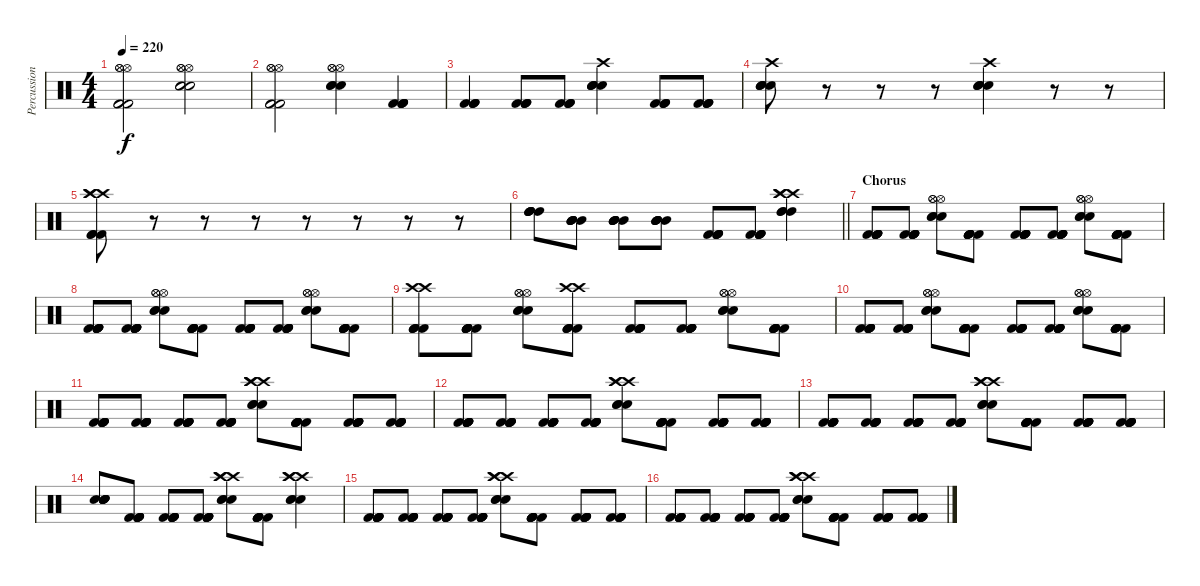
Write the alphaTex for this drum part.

\track ("Percussion" "Percussion") {instrument percussion}
\staff {score}
\articulation defaults
\ts (4 4)
\tempo 220
\clef neutral
\ks c
("Hi-Hat (open)" "Hi-Hat (open)" "Hi-Hat (open)" "Kick (hit) 2" "Kick (hit) 2" "Kick (hit) 2").2{dy f} ("Hi-Hat (open)" "Hi-Hat (open)" "Hi-Hat (open)" "Snare (hit) 2" "Snare (hit) 2" "Snare (hit) 2").2 |
("Hi-Hat (open)" "Hi-Hat (open)" "Hi-Hat (open)" "Kick (hit) 2" "Kick (hit) 2" "Kick (hit) 2").2 ("Hi-Hat (open)" "Hi-Hat (open)" "Hi-Hat (open)" "Snare (hit) 2" "Snare (hit) 2" "Snare (hit) 2").4 ("Kick (hit) 2" "Kick (hit) 2" "Kick (hit) 2" "Kick (hit) 2" "Kick (hit) 2").4 |
("Kick (hit) 2" "Kick (hit) 2" "Kick (hit) 2" "Kick (hit) 2").4 ("Kick (hit) 2" "Kick (hit) 2" "Kick (hit) 2" "Kick (hit) 2").8 ("Kick (hit) 2" "Kick (hit) 2" "Kick (hit) 2" "Kick (hit) 2").8 ("Crash high (hit)" "Snare (hit) 2" "Snare (hit) 2" "Snare (hit) 2" "Snare (hit) 2").4 ("Kick (hit) 2" "Kick (hit) 2" "Kick (hit) 2" "Kick (hit) 2").8 ("Kick (hit) 2" "Kick (hit) 2" "Kick (hit) 2" "Kick (hit) 2").8 |
("Crash high (hit)" "Snare (hit) 2" "Snare (hit) 2" "Snare (hit) 2" "Snare (hit) 2").8 r.8 r.8 r.8 ("Crash high (hit)" "Snare (hit) 2" "Snare (hit) 2" "Snare (hit) 2" "Snare (hit) 2").4 r.8 r.8 |
("Crash high (hit)" "Crash high (hit)" "Crash high (hit)" "Kick (hit) 2" "Kick (hit) 2" "Kick (hit) 2").8 r.8 r.8 r.8 r.8 r.8 r.8 r.8 |
\barLineRight lightlight
("High Tom (hit)" "High Tom (hit)" "High Tom (hit)" "High Tom (hit)" "High Tom (hit)").8 ("Mid Tom (hit)" "Mid Tom (hit)" "Mid Tom (hit)" "Mid Tom (hit)" "Mid Tom (hit)").8 ("Mid Tom (hit)" "Mid Tom (hit)" "Mid Tom (hit)" "Mid Tom (hit)" "Mid Tom (hit)").8 ("Mid Tom (hit)" "Mid Tom (hit)" "Mid Tom (hit)" "Mid Tom (hit)" "Mid Tom (hit)").8 ("Kick (hit) 2" "Kick (hit) 2" "Kick (hit) 2" "Kick (hit) 2" "Kick (hit) 2").8 ("Kick (hit) 2" "Kick (hit) 2" "Kick (hit) 2" "Kick (hit) 2" "Kick (hit) 2").8 ("Crash high (hit)" "Crash high (hit)" "Crash high (hit)" "High Tom (hit)" "High Tom (hit)" "High Tom (hit)").4 |
\section ("" "Chorus")
("Kick (hit) 2" "Kick (hit) 2" "Kick (hit) 2" "Kick (hit) 2" "Kick (hit) 2" "Kick (hit) 2").8 ("Kick (hit) 2" "Kick (hit) 2" "Kick (hit) 2" "Kick (hit) 2" "Kick (hit) 2" "Kick (hit) 2").8 ("Hi-Hat (open)" "Hi-Hat (open)" "Hi-Hat (open)" "Snare (hit) 2" "Snare (hit) 2" "Snare (hit) 2").8 ("Kick (hit) 2" "Kick (hit) 2" "Kick (hit) 2" "Kick (hit) 2" "Kick (hit) 2" "Kick (hit) 2").8 ("Kick (hit) 2" "Kick (hit) 2" "Kick (hit) 2" "Kick (hit) 2" "Kick (hit) 2" "Kick (hit) 2").8 ("Kick (hit) 2" "Kick (hit) 2" "Kick (hit) 2" "Kick (hit) 2" "Kick (hit) 2" "Kick (hit) 2").8 ("Hi-Hat (open)" "Hi-Hat (open)" "Hi-Hat (open)" "Snare (hit) 2" "Snare (hit) 2" "Snare (hit) 2").8 ("Kick (hit) 2" "Kick (hit) 2" "Kick (hit) 2" "Kick (hit) 2" "Kick (hit) 2" "Kick (hit) 2").8 |
("Kick (hit) 2" "Kick (hit) 2" "Kick (hit) 2" "Kick (hit) 2" "Kick (hit) 2" "Kick (hit) 2").8 ("Kick (hit) 2" "Kick (hit) 2" "Kick (hit) 2" "Kick (hit) 2" "Kick (hit) 2" "Kick (hit) 2").8 ("Hi-Hat (open)" "Hi-Hat (open)" "Hi-Hat (open)" "Snare (hit) 2" "Snare (hit) 2" "Snare (hit) 2").8 ("Kick (hit) 2" "Kick (hit) 2" "Kick (hit) 2" "Kick (hit) 2" "Kick (hit) 2" "Kick (hit) 2").8 ("Kick (hit) 2" "Kick (hit) 2" "Kick (hit) 2" "Kick (hit) 2" "Kick (hit) 2" "Kick (hit) 2").8 ("Kick (hit) 2" "Kick (hit) 2" "Kick (hit) 2" "Kick (hit) 2" "Kick (hit) 2" "Kick (hit) 2").8 ("Hi-Hat (open)" "Hi-Hat (open)" "Hi-Hat (open)" "Snare (hit) 2" "Snare (hit) 2" "Snare (hit) 2").8 ("Kick (hit) 2" "Kick (hit) 2" "Kick (hit) 2" "Kick (hit) 2" "Kick (hit) 2" "Kick (hit) 2").8 |
("Crash high (hit)" "Crash high (hit)" "Kick (hit) 2" "Kick (hit) 2" "Kick (hit) 2" "Kick (hit) 2").8 ("Kick (hit) 2" "Kick (hit) 2" "Kick (hit) 2" "Kick (hit) 2" "Kick (hit) 2" "Kick (hit) 2").8 ("Hi-Hat (open)" "Hi-Hat (open)" "Hi-Hat (open)" "Snare (hit) 2" "Snare (hit) 2" "Snare (hit) 2").8 ("Crash high (hit)" "Crash high (hit)" "Kick (hit) 2" "Kick (hit) 2" "Kick (hit) 2" "Kick (hit) 2").8 ("Kick (hit) 2" "Kick (hit) 2" "Kick (hit) 2" "Kick (hit) 2" "Kick (hit) 2" "Kick (hit) 2").8 ("Kick (hit) 2" "Kick (hit) 2" "Kick (hit) 2" "Kick (hit) 2" "Kick (hit) 2" "Kick (hit) 2").8 ("Hi-Hat (open)" "Hi-Hat (open)" "Hi-Hat (open)" "Snare (hit) 2" "Snare (hit) 2" "Snare (hit) 2").8 ("Kick (hit) 2" "Kick (hit) 2" "Kick (hit) 2" "Kick (hit) 2" "Kick (hit) 2" "Kick (hit) 2").8 |
("Kick (hit) 2" "Kick (hit) 2" "Kick (hit) 2" "Kick (hit) 2" "Kick (hit) 2" "Kick (hit) 2").8 ("Kick (hit) 2" "Kick (hit) 2" "Kick (hit) 2" "Kick (hit) 2" "Kick (hit) 2" "Kick (hit) 2").8 ("Hi-Hat (open)" "Hi-Hat (open)" "Hi-Hat (open)" "Snare (hit) 2" "Snare (hit) 2" "Snare (hit) 2").8 ("Kick (hit) 2" "Kick (hit) 2" "Kick (hit) 2" "Kick (hit) 2" "Kick (hit) 2" "Kick (hit) 2").8 ("Kick (hit) 2" "Kick (hit) 2" "Kick (hit) 2" "Kick (hit) 2" "Kick (hit) 2" "Kick (hit) 2").8 ("Kick (hit) 2" "Kick (hit) 2" "Kick (hit) 2" "Kick (hit) 2" "Kick (hit) 2" "Kick (hit) 2").8 ("Hi-Hat (open)" "Hi-Hat (open)" "Hi-Hat (open)" "Snare (hit) 2" "Snare (hit) 2" "Snare (hit) 2").8 ("Kick (hit) 2" "Kick (hit) 2" "Kick (hit) 2" "Kick (hit) 2" "Kick (hit) 2" "Kick (hit) 2").8 |
("Kick (hit) 2" "Kick (hit) 2" "Kick (hit) 2" "Kick (hit) 2" "Kick (hit) 2" "Kick (hit) 2").8 ("Kick (hit) 2" "Kick (hit) 2" "Kick (hit) 2" "Kick (hit) 2" "Kick (hit) 2" "Kick (hit) 2").8 ("Kick (hit) 2" "Kick (hit) 2" "Kick (hit) 2" "Kick (hit) 2" "Kick (hit) 2" "Kick (hit) 2").8 ("Kick (hit) 2" "Kick (hit) 2" "Kick (hit) 2" "Kick (hit) 2" "Kick (hit) 2" "Kick (hit) 2").8 ("Crash high (hit)" "Crash high (hit)" "Crash high (hit)" "Snare (hit) 2" "Snare (hit) 2" "Snare (hit) 2").8 ("Kick (hit) 2" "Kick (hit) 2" "Kick (hit) 2" "Kick (hit) 2" "Kick (hit) 2" "Kick (hit) 2").8 ("Kick (hit) 2" "Kick (hit) 2" "Kick (hit) 2" "Kick (hit) 2" "Kick (hit) 2" "Kick (hit) 2").8 ("Kick (hit) 2" "Kick (hit) 2" "Kick (hit) 2" "Kick (hit) 2" "Kick (hit) 2" "Kick (hit) 2").8 |
("Kick (hit) 2" "Kick (hit) 2" "Kick (hit) 2" "Kick (hit) 2" "Kick (hit) 2" "Kick (hit) 2").8 ("Kick (hit) 2" "Kick (hit) 2" "Kick (hit) 2" "Kick (hit) 2" "Kick (hit) 2" "Kick (hit) 2").8 ("Kick (hit) 2" "Kick (hit) 2" "Kick (hit) 2" "Kick (hit) 2" "Kick (hit) 2" "Kick (hit) 2").8 ("Kick (hit) 2" "Kick (hit) 2" "Kick (hit) 2" "Kick (hit) 2" "Kick (hit) 2" "Kick (hit) 2").8 ("Crash high (hit)" "Crash high (hit)" "Crash high (hit)" "Snare (hit) 2" "Snare (hit) 2" "Snare (hit) 2").8 ("Kick (hit) 2" "Kick (hit) 2" "Kick (hit) 2" "Kick (hit) 2" "Kick (hit) 2" "Kick (hit) 2").8 ("Kick (hit) 2" "Kick (hit) 2" "Kick (hit) 2" "Kick (hit) 2" "Kick (hit) 2" "Kick (hit) 2").8 ("Kick (hit) 2" "Kick (hit) 2" "Kick (hit) 2" "Kick (hit) 2" "Kick (hit) 2" "Kick (hit) 2").8 |
("Kick (hit) 2" "Kick (hit) 2" "Kick (hit) 2" "Kick (hit) 2" "Kick (hit) 2" "Kick (hit) 2").8 ("Kick (hit) 2" "Kick (hit) 2" "Kick (hit) 2" "Kick (hit) 2" "Kick (hit) 2" "Kick (hit) 2").8 ("Kick (hit) 2" "Kick (hit) 2" "Kick (hit) 2" "Kick (hit) 2" "Kick (hit) 2" "Kick (hit) 2").8 ("Kick (hit) 2" "Kick (hit) 2" "Kick (hit) 2" "Kick (hit) 2" "Kick (hit) 2" "Kick (hit) 2").8 ("Crash high (hit)" "Crash high (hit)" "Crash high (hit)" "Snare (hit) 2" "Snare (hit) 2" "Snare (hit) 2").8 ("Kick (hit) 2" "Kick (hit) 2" "Kick (hit) 2" "Kick (hit) 2" "Kick (hit) 2" "Kick (hit) 2").8 ("Kick (hit) 2" "Kick (hit) 2" "Kick (hit) 2" "Kick (hit) 2" "Kick (hit) 2" "Kick (hit) 2").8 ("Kick (hit) 2" "Kick (hit) 2" "Kick (hit) 2" "Kick (hit) 2" "Kick (hit) 2" "Kick (hit) 2").8 |
("Snare (hit) 2" "Snare (hit) 2" "Snare (hit) 2" "Snare (hit) 2" "Snare (hit) 2" "Snare (hit) 2").8 ("Kick (hit) 2" "Kick (hit) 2" "Kick (hit) 2" "Kick (hit) 2" "Kick (hit) 2" "Kick (hit) 2").8 ("Kick (hit) 2" "Kick (hit) 2" "Kick (hit) 2" "Kick (hit) 2" "Kick (hit) 2" "Kick (hit) 2").8 ("Kick (hit) 2" "Kick (hit) 2" "Kick (hit) 2" "Kick (hit) 2" "Kick (hit) 2" "Kick (hit) 2").8 ("Crash high (hit)" "Crash high (hit)" "Crash high (hit)" "Snare (hit) 2" "Snare (hit) 2" "Snare (hit) 2").8 ("Kick (hit) 2" "Kick (hit) 2" "Kick (hit) 2" "Kick (hit) 2" "Kick (hit) 2" "Kick (hit) 2").8 ("Crash high (hit)" "Crash high (hit)" "Crash high (hit)" "Snare (hit) 2" "Snare (hit) 2" "Snare (hit) 2").4 |
("Kick (hit) 2" "Kick (hit) 2" "Kick (hit) 2" "Kick (hit) 2" "Kick (hit) 2" "Kick (hit) 2").8 ("Kick (hit) 2" "Kick (hit) 2" "Kick (hit) 2" "Kick (hit) 2" "Kick (hit) 2" "Kick (hit) 2").8 ("Kick (hit) 2" "Kick (hit) 2" "Kick (hit) 2" "Kick (hit) 2" "Kick (hit) 2" "Kick (hit) 2").8 ("Kick (hit) 2" "Kick (hit) 2" "Kick (hit) 2" "Kick (hit) 2" "Kick (hit) 2" "Kick (hit) 2").8 ("Crash high (hit)" "Crash high (hit)" "Crash high (hit)" "Snare (hit) 2" "Snare (hit) 2" "Snare (hit) 2").8 ("Kick (hit) 2" "Kick (hit) 2" "Kick (hit) 2" "Kick (hit) 2" "Kick (hit) 2" "Kick (hit) 2").8 ("Kick (hit) 2" "Kick (hit) 2" "Kick (hit) 2" "Kick (hit) 2" "Kick (hit) 2" "Kick (hit) 2").8 ("Kick (hit) 2" "Kick (hit) 2" "Kick (hit) 2" "Kick (hit) 2" "Kick (hit) 2" "Kick (hit) 2").8 |
("Kick (hit) 2" "Kick (hit) 2" "Kick (hit) 2" "Kick (hit) 2" "Kick (hit) 2" "Kick (hit) 2").8 ("Kick (hit) 2" "Kick (hit) 2" "Kick (hit) 2" "Kick (hit) 2" "Kick (hit) 2" "Kick (hit) 2").8 ("Kick (hit) 2" "Kick (hit) 2" "Kick (hit) 2" "Kick (hit) 2" "Kick (hit) 2" "Kick (hit) 2").8 ("Kick (hit) 2" "Kick (hit) 2" "Kick (hit) 2" "Kick (hit) 2" "Kick (hit) 2" "Kick (hit) 2").8 ("Crash high (hit)" "Crash high (hit)" "Crash high (hit)" "Snare (hit) 2" "Snare (hit) 2" "Snare (hit) 2").8 ("Kick (hit) 2" "Kick (hit) 2" "Kick (hit) 2" "Kick (hit) 2" "Kick (hit) 2" "Kick (hit) 2").8 ("Kick (hit) 2" "Kick (hit) 2" "Kick (hit) 2" "Kick (hit) 2" "Kick (hit) 2" "Kick (hit) 2").8 ("Kick (hit) 2" "Kick (hit) 2" "Kick (hit) 2" "Kick (hit) 2" "Kick (hit) 2" "Kick (hit) 2").8
